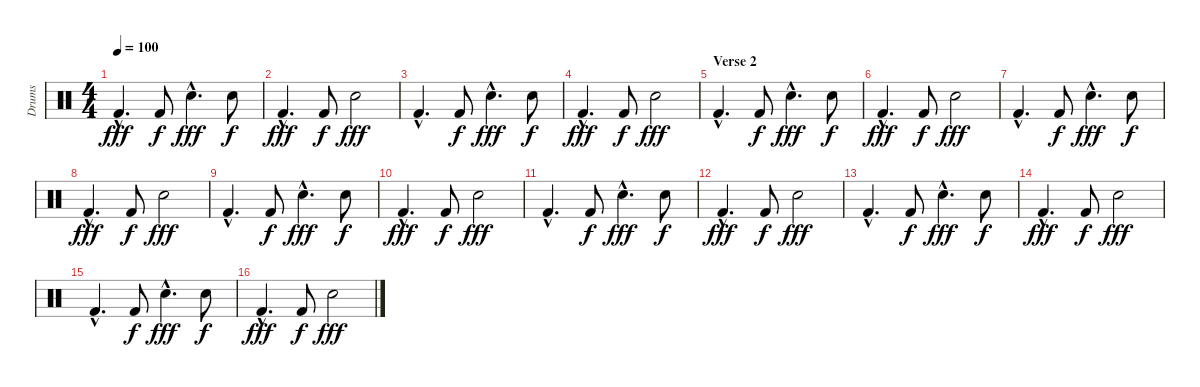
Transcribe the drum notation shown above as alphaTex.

\track ("Drums" "Drums") {instrument percussion}
\staff {score}
\articulation defaults
\ts (4 4)
\tempo 100
\clef neutral
\ks c "Kick (hit) 2"{hac}.4{d dy fff} "Kick (hit) 2".8{dy f} "Electric Snare (hit)"{hac}.4{d dy fff} "Electric Snare (hit)".8{dy f}
|
"Kick (hit) 2"{hac}.4{d dy fff} "Kick (hit) 2".8{dy f} "Electric Snare (hit)".2{dy fff} |
"Kick (hit) 2"{hac}.4{d} "Kick (hit) 2".8{dy f} "Electric Snare (hit)"{hac}.4{d dy fff} "Electric Snare (hit)".8{dy f} |
"Kick (hit) 2"{hac}.4{d dy fff} "Kick (hit) 2".8{dy f} "Electric Snare (hit)".2{dy fff} |
\section ("" "Verse 2")
"Kick (hit) 2"{hac}.4{d} "Kick (hit) 2".8{dy f} "Electric Snare (hit)"{hac}.4{d dy fff} "Electric Snare (hit)".8{dy f} |
"Kick (hit) 2"{hac}.4{d dy fff} "Kick (hit) 2".8{dy f} "Electric Snare (hit)".2{dy fff} |
"Kick (hit) 2"{hac}.4{d} "Kick (hit) 2".8{dy f} "Electric Snare (hit)"{hac}.4{d dy fff} "Electric Snare (hit)".8{dy f} |
"Kick (hit) 2"{hac}.4{d dy fff} "Kick (hit) 2".8{dy f} "Electric Snare (hit)".2{dy fff} |
"Kick (hit) 2"{hac}.4{d} "Kick (hit) 2".8{dy f} "Electric Snare (hit)"{hac}.4{d dy fff} "Electric Snare (hit)".8{dy f} |
"Kick (hit) 2"{hac}.4{d dy fff} "Kick (hit) 2".8{dy f} "Electric Snare (hit)".2{dy fff} |
"Kick (hit) 2"{hac}.4{d} "Kick (hit) 2".8{dy f} "Electric Snare (hit)"{hac}.4{d dy fff} "Electric Snare (hit)".8{dy f} |
"Kick (hit) 2"{hac}.4{d dy fff} "Kick (hit) 2".8{dy f} "Electric Snare (hit)".2{dy fff} |
"Kick (hit) 2"{hac}.4{d} "Kick (hit) 2".8{dy f} "Electric Snare (hit)"{hac}.4{d dy fff} "Electric Snare (hit)".8{dy f} |
"Kick (hit) 2"{hac}.4{d dy fff} "Kick (hit) 2".8{dy f} "Electric Snare (hit)".2{dy fff} |
"Kick (hit) 2"{hac}.4{d} "Kick (hit) 2".8{dy f} "Electric Snare (hit)"{hac}.4{d dy fff} "Electric Snare (hit)".8{dy f} |
"Kick (hit) 2"{hac}.4{d dy fff} "Kick (hit) 2".8{dy f} "Electric Snare (hit)".2{dy fff}
